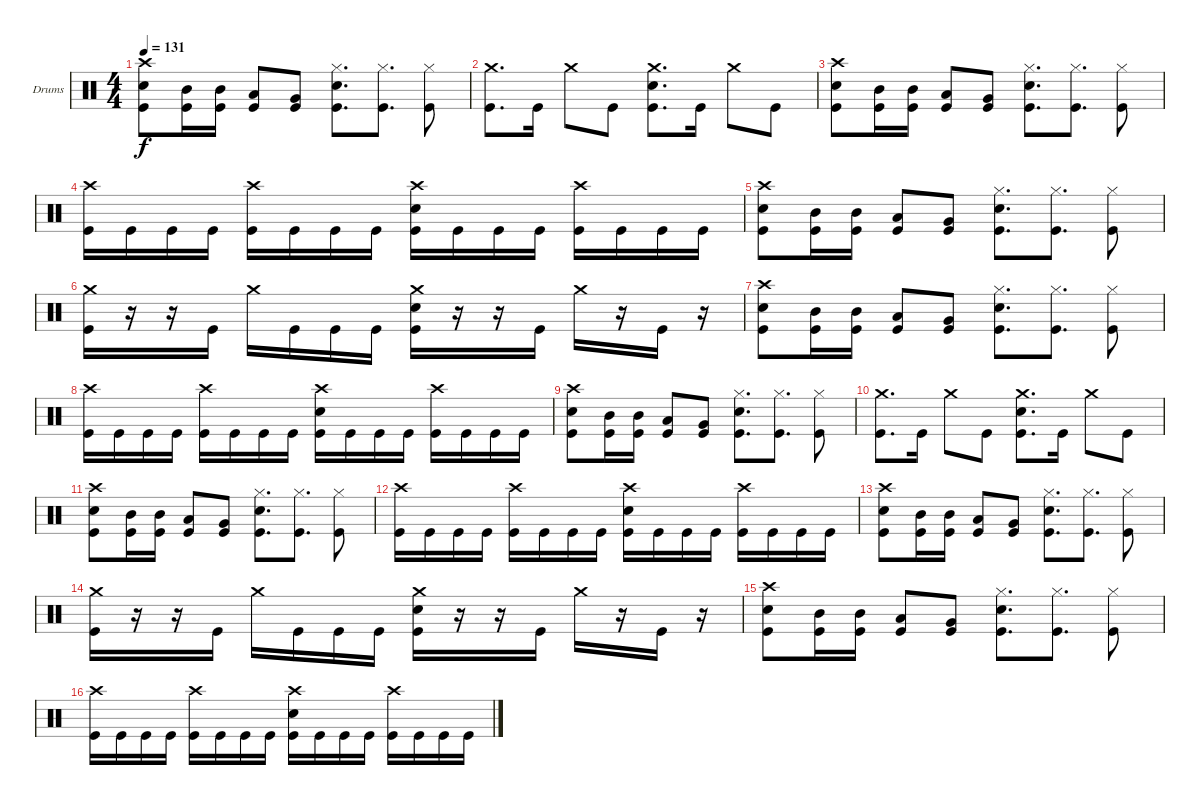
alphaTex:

\bracketExtendMode groupsimilarinstruments
\firstSystemTrackNameOrientation horizontal
\otherSystemsTrackNameOrientation horizontal
\track ("Drumkit" "Drums") {instrument percussion}
\staff {score}
\articulation defaults
\ts (4 4)
\tempo 131
\clef neutral
\ks c
("Crash high (hit)" "Snare (hit) 2" "Kick (hit)").8{dy f} ("Mid Tom (hit)" "Kick (hit)").16 ("Mid Tom (hit)" "Kick (hit)").16 ("Low Tom (hit)" "Kick (hit)").8 ("Very Low Tom (hit)" "Kick (hit)").8 ("Hi-Hat (closed)" "Snare (hit) 2" "Kick (hit)").8{d} ("Hi-Hat (closed)" "Kick (hit)").8{d} ("Hi-Hat (closed)" "Kick (hit)").8 |
("Crash medium (hit)" "Kick (hit)").8{d} "Kick (hit)".16 "Crash medium (hit)".8 "Kick (hit)".8 ("Crash medium (hit)" "Snare (hit) 2" "Kick (hit)").8{d} "Kick (hit)".16 "Crash medium (hit)".8 "Kick (hit)".8 |
("Crash high (hit)" "Snare (hit) 2" "Kick (hit)").8 ("Mid Tom (hit)" "Kick (hit)").16 ("Mid Tom (hit)" "Kick (hit)").16 ("Low Tom (hit)" "Kick (hit)").8 ("Very Low Tom (hit)" "Kick (hit)").8 ("Hi-Hat (closed)" "Snare (hit) 2" "Kick (hit)").8{d} ("Hi-Hat (closed)" "Kick (hit)").8{d} ("Hi-Hat (closed)" "Kick (hit)").8 |
("Crash high (hit)" "Kick (hit)").16 "Kick (hit)".16 "Kick (hit)".16 "Kick (hit)".16 ("Crash high (hit)" "Kick (hit)").16 "Kick (hit)".16 "Kick (hit)".16 "Kick (hit)".16 ("Crash high (hit)" "Snare (hit) 2" "Kick (hit)").16 "Kick (hit)".16 "Kick (hit)".16 "Kick (hit)".16 ("Crash high (hit)" "Kick (hit)").16 "Kick (hit)".16 "Kick (hit)".16 "Kick (hit)".16 |
("Crash high (hit)" "Snare (hit) 2" "Kick (hit)").8 ("Mid Tom (hit)" "Kick (hit)").16 ("Mid Tom (hit)" "Kick (hit)").16 ("Low Tom (hit)" "Kick (hit)").8 ("Very Low Tom (hit)" "Kick (hit)").8 ("Hi-Hat (closed)" "Snare (hit) 2" "Kick (hit)").8{d} ("Hi-Hat (closed)" "Kick (hit)").8{d} ("Hi-Hat (closed)" "Kick (hit)").8 |
("Crash medium (hit)" "Kick (hit)").16 r.16 r.16 "Kick (hit)".16 "Crash medium (hit)".16 "Kick (hit)".16 "Kick (hit)".16 "Kick (hit)".16 ("Crash medium (hit)" "Snare (hit) 2" "Kick (hit)").16 r.16 r.16 "Kick (hit)".16 "Crash medium (hit)".16 r.16 "Kick (hit)".16 r.16 |
("Crash high (hit)" "Snare (hit) 2" "Kick (hit)").8 ("Mid Tom (hit)" "Kick (hit)").16 ("Mid Tom (hit)" "Kick (hit)").16 ("Low Tom (hit)" "Kick (hit)").8 ("Very Low Tom (hit)" "Kick (hit)").8 ("Hi-Hat (closed)" "Snare (hit) 2" "Kick (hit)").8{d} ("Hi-Hat (closed)" "Kick (hit)").8{d} ("Hi-Hat (closed)" "Kick (hit)").8 |
("Crash high (hit)" "Kick (hit)").16 "Kick (hit)".16 "Kick (hit)".16 "Kick (hit)".16 ("Crash high (hit)" "Kick (hit)").16 "Kick (hit)".16 "Kick (hit)".16 "Kick (hit)".16 ("Crash high (hit)" "Snare (hit) 2" "Kick (hit)").16 "Kick (hit)".16 "Kick (hit)".16 "Kick (hit)".16 ("Crash high (hit)" "Kick (hit)").16 "Kick (hit)".16 "Kick (hit)".16 "Kick (hit)".16 |
("Crash high (hit)" "Snare (hit) 2" "Kick (hit)").8 ("Mid Tom (hit)" "Kick (hit)").16 ("Mid Tom (hit)" "Kick (hit)").16 ("Low Tom (hit)" "Kick (hit)").8 ("Very Low Tom (hit)" "Kick (hit)").8 ("Hi-Hat (closed)" "Snare (hit) 2" "Kick (hit)").8{d} ("Hi-Hat (closed)" "Kick (hit)").8{d} ("Hi-Hat (closed)" "Kick (hit)").8 |
("Crash medium (hit)" "Kick (hit)").8{d} "Kick (hit)".16 "Crash medium (hit)".8 "Kick (hit)".8 ("Crash medium (hit)" "Snare (hit) 2" "Kick (hit)").8{d} "Kick (hit)".16 "Crash medium (hit)".8 "Kick (hit)".8 |
("Crash high (hit)" "Snare (hit) 2" "Kick (hit)").8 ("Mid Tom (hit)" "Kick (hit)").16 ("Mid Tom (hit)" "Kick (hit)").16 ("Low Tom (hit)" "Kick (hit)").8 ("Very Low Tom (hit)" "Kick (hit)").8 ("Hi-Hat (closed)" "Snare (hit) 2" "Kick (hit)").8{d} ("Hi-Hat (closed)" "Kick (hit)").8{d} ("Hi-Hat (closed)" "Kick (hit)").8 |
("Crash high (hit)" "Kick (hit)").16 "Kick (hit)".16 "Kick (hit)".16 "Kick (hit)".16 ("Crash high (hit)" "Kick (hit)").16 "Kick (hit)".16 "Kick (hit)".16 "Kick (hit)".16 ("Crash high (hit)" "Snare (hit) 2" "Kick (hit)").16 "Kick (hit)".16 "Kick (hit)".16 "Kick (hit)".16 ("Crash high (hit)" "Kick (hit)").16 "Kick (hit)".16 "Kick (hit)".16 "Kick (hit)".16 |
("Crash high (hit)" "Snare (hit) 2" "Kick (hit)").8 ("Mid Tom (hit)" "Kick (hit)").16 ("Mid Tom (hit)" "Kick (hit)").16 ("Low Tom (hit)" "Kick (hit)").8 ("Very Low Tom (hit)" "Kick (hit)").8 ("Hi-Hat (closed)" "Snare (hit) 2" "Kick (hit)").8{d} ("Hi-Hat (closed)" "Kick (hit)").8{d} ("Hi-Hat (closed)" "Kick (hit)").8 |
("Crash medium (hit)" "Kick (hit)").16 r.16 r.16 "Kick (hit)".16 "Crash medium (hit)".16 "Kick (hit)".16 "Kick (hit)".16 "Kick (hit)".16 ("Crash medium (hit)" "Snare (hit) 2" "Kick (hit)").16 r.16 r.16 "Kick (hit)".16 "Crash medium (hit)".16 r.16 "Kick (hit)".16 r.16 |
("Crash high (hit)" "Snare (hit) 2" "Kick (hit)").8 ("Mid Tom (hit)" "Kick (hit)").16 ("Mid Tom (hit)" "Kick (hit)").16 ("Low Tom (hit)" "Kick (hit)").8 ("Very Low Tom (hit)" "Kick (hit)").8 ("Hi-Hat (closed)" "Snare (hit) 2" "Kick (hit)").8{d} ("Hi-Hat (closed)" "Kick (hit)").8{d} ("Hi-Hat (closed)" "Kick (hit)").8 |
("Crash high (hit)" "Kick (hit)").16 "Kick (hit)".16 "Kick (hit)".16 "Kick (hit)".16 ("Crash high (hit)" "Kick (hit)").16 "Kick (hit)".16 "Kick (hit)".16 "Kick (hit)".16 ("Crash high (hit)" "Snare (hit) 2" "Kick (hit)").16 "Kick (hit)".16 "Kick (hit)".16 "Kick (hit)".16 ("Crash high (hit)" "Kick (hit)").16 "Kick (hit)".16 "Kick (hit)".16 "Kick (hit)".16
